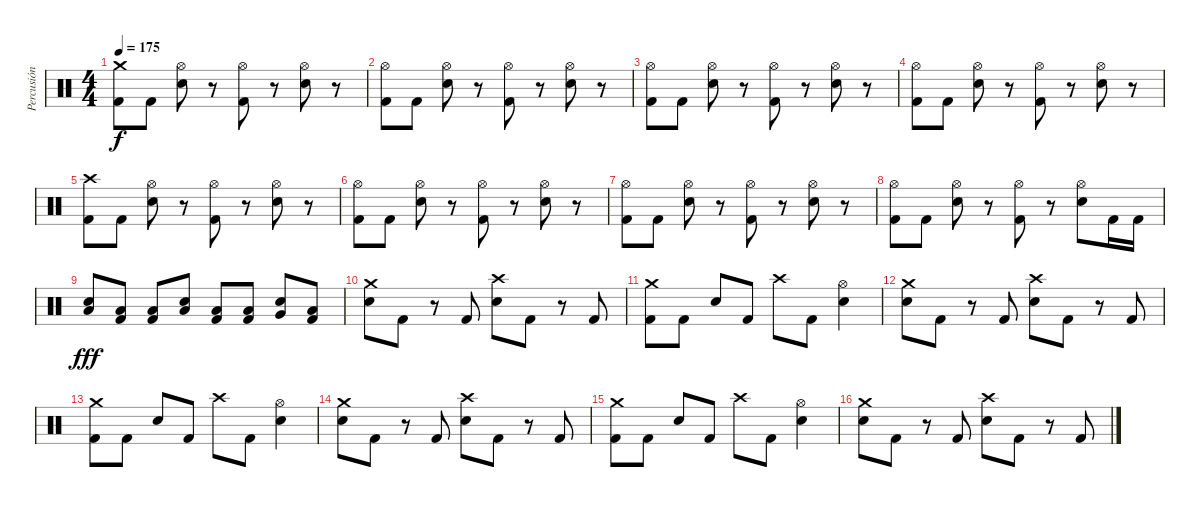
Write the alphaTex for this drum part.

\track ("Percusión" "Percusión") {instrument percussion}
\staff {score}
\articulation defaults
\ts (4 4)
\tempo 175
\clef neutral
\ks c
("Crash medium (hit)" "Kick (hit) 2").8{dy f} "Kick (hit) 2".8 ("Hi-Hat (open)" "Electric Snare (hit)").8 r.8 ("Hi-Hat (open)" "Kick (hit) 2").8 r.8 ("Hi-Hat (open)" "Electric Snare (hit)").8 r.8 |
("Hi-Hat (open)" "Kick (hit) 2").8 "Kick (hit) 2".8 ("Hi-Hat (open)" "Electric Snare (hit)").8 r.8 ("Hi-Hat (open)" "Kick (hit) 2").8 r.8 ("Hi-Hat (open)" "Electric Snare (hit)").8 r.8 |
("Hi-Hat (open)" "Kick (hit) 2").8 "Kick (hit) 2".8 ("Hi-Hat (open)" "Electric Snare (hit)").8 r.8 ("Hi-Hat (open)" "Kick (hit) 2").8 r.8 ("Hi-Hat (open)" "Electric Snare (hit)").8 r.8 |
("Hi-Hat (open)" "Kick (hit) 2").8 "Kick (hit) 2".8 ("Hi-Hat (open)" "Electric Snare (hit)").8 r.8 ("Hi-Hat (open)" "Kick (hit) 2").8 r.8 ("Hi-Hat (open)" "Electric Snare (hit)").8 r.8 |
("Crash high (hit)" "Kick (hit) 2").8 "Kick (hit) 2".8 ("Hi-Hat (open)" "Electric Snare (hit)").8 r.8 ("Hi-Hat (open)" "Kick (hit) 2").8 r.8 ("Hi-Hat (open)" "Electric Snare (hit)").8 r.8 |
("Hi-Hat (open)" "Kick (hit) 2").8 "Kick (hit) 2".8 ("Hi-Hat (open)" "Electric Snare (hit)").8 r.8 ("Hi-Hat (open)" "Kick (hit) 2").8 r.8 ("Hi-Hat (open)" "Electric Snare (hit)").8 r.8 |
("Hi-Hat (open)" "Kick (hit) 2").8 "Kick (hit) 2".8 ("Hi-Hat (open)" "Electric Snare (hit)").8 r.8 ("Hi-Hat (open)" "Kick (hit) 2").8 r.8 ("Hi-Hat (open)" "Electric Snare (hit)").8 r.8 |
("Hi-Hat (open)" "Kick (hit) 2").8 "Kick (hit) 2".8 ("Hi-Hat (open)" "Electric Snare (hit)").8 r.8 ("Hi-Hat (open)" "Kick (hit) 2").8 r.8 ("Hi-Hat (open)" "Electric Snare (hit)").8 "Kick (hit) 2".16 "Kick (hit) 2".16 |
("Electric Snare (hit)" "Low Tom (hit)").8{dy fff} ("Low Floor Tom (hit)" "Kick (hit) 2").8 ("Low Floor Tom (hit)" "Kick (hit) 2").8 ("Electric Snare (hit)" "Low Tom (hit)").8 ("Low Floor Tom (hit)" "Kick (hit) 2").8 ("Low Floor Tom (hit)" "Kick (hit) 2").8 ("Electric Snare (hit)" "Very Low Tom (hit)").8 ("Low Floor Tom (hit)" "Kick (hit) 2").8 |
("Crash medium (hit)" "Electric Snare (hit)").8 "Kick (hit) 2".8 r.8 "Kick (hit) 2".8 ("Crash high (hit)" "Electric Snare (hit)").8 "Kick (hit) 2".8 r.8 "Kick (hit) 2".8 |
("Crash medium (hit)" "Kick (hit) 2").8 "Kick (hit) 2".8 "Electric Snare (hit)".8 "Kick (hit) 2".8 "Crash high (hit)".8 "Kick (hit) 2".8 ("Hi-Hat (open)" "Electric Snare (hit)").4 |
("Crash medium (hit)" "Electric Snare (hit)").8 "Kick (hit) 2".8 r.8 "Kick (hit) 2".8 ("Crash high (hit)" "Electric Snare (hit)").8 "Kick (hit) 2".8 r.8 "Kick (hit) 2".8 |
("Crash medium (hit)" "Kick (hit) 2").8 "Kick (hit) 2".8 "Electric Snare (hit)".8 "Kick (hit) 2".8 "Crash high (hit)".8 "Kick (hit) 2".8 ("Hi-Hat (open)" "Electric Snare (hit)").4 |
("Crash medium (hit)" "Electric Snare (hit)").8 "Kick (hit) 2".8 r.8 "Kick (hit) 2".8 ("Crash high (hit)" "Electric Snare (hit)").8 "Kick (hit) 2".8 r.8 "Kick (hit) 2".8 |
("Crash medium (hit)" "Kick (hit) 2").8 "Kick (hit) 2".8 "Electric Snare (hit)".8 "Kick (hit) 2".8 "Crash high (hit)".8 "Kick (hit) 2".8 ("Hi-Hat (open)" "Electric Snare (hit)").4 |
("Crash medium (hit)" "Electric Snare (hit)").8 "Kick (hit) 2".8 r.8 "Kick (hit) 2".8 ("Crash high (hit)" "Electric Snare (hit)").8 "Kick (hit) 2".8 r.8 "Kick (hit) 2".8
